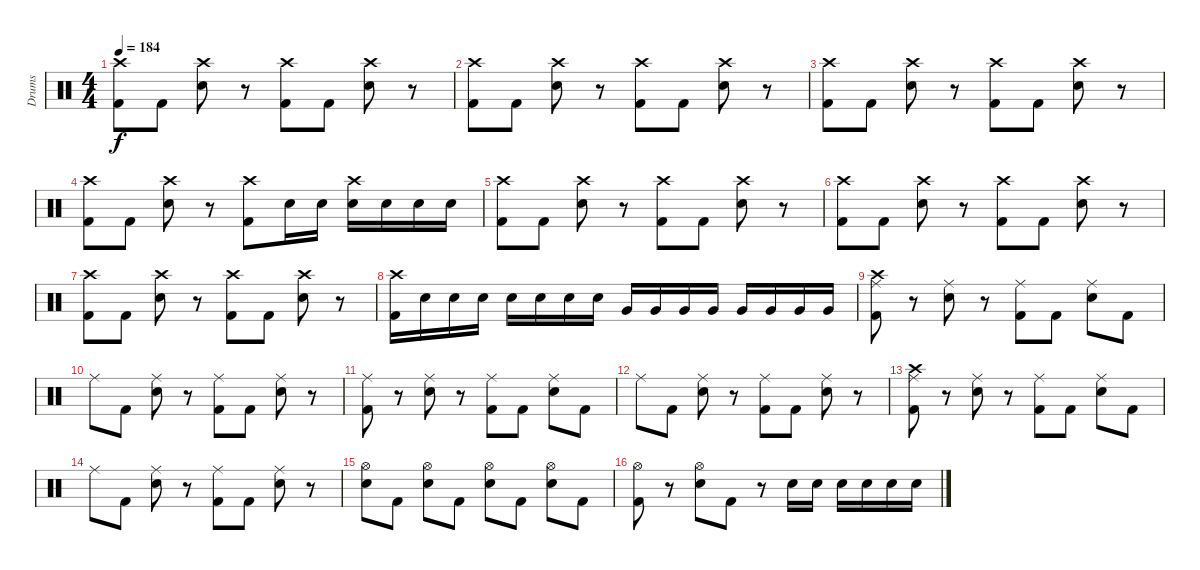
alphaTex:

\track ("Drums" "Drums") {instrument percussion}
\staff {score}
\articulation defaults
\ts (4 4)
\tempo 184
\clef neutral
\ks c
("Crash high (hit)" "Kick (hit) 2").8{dy f} "Kick (hit) 2".8 ("Crash high (hit)" "Snare (hit) 2").8 r.8 ("Crash high (hit)" "Kick (hit) 2").8 "Kick (hit) 2".8 ("Crash high (hit)" "Snare (hit) 2").8 r.8 |
("Crash high (hit)" "Kick (hit) 2").8 "Kick (hit) 2".8 ("Crash high (hit)" "Snare (hit) 2").8 r.8 ("Crash high (hit)" "Kick (hit) 2").8 "Kick (hit) 2".8 ("Crash high (hit)" "Snare (hit) 2").8 r.8 |
("Crash high (hit)" "Kick (hit) 2").8 "Kick (hit) 2".8 ("Crash high (hit)" "Snare (hit) 2").8 r.8 ("Crash high (hit)" "Kick (hit) 2").8 "Kick (hit) 2".8 ("Crash high (hit)" "Snare (hit) 2").8 r.8 |
("Crash high (hit)" "Kick (hit) 2").8 "Kick (hit) 2".8 ("Crash high (hit)" "Snare (hit) 2").8 r.8 ("Crash high (hit)" "Kick (hit) 2").8 "Snare (hit) 2".16 "Snare (hit) 2".16 ("Crash high (hit)" "Snare (hit) 2").16 "Snare (hit) 2".16 "Snare (hit) 2".16 "Snare (hit) 2".16 |
("Crash high (hit)" "Kick (hit) 2").8 "Kick (hit) 2".8 ("Crash high (hit)" "Snare (hit) 2").8 r.8 ("Crash high (hit)" "Kick (hit) 2").8 "Kick (hit) 2".8 ("Crash high (hit)" "Snare (hit) 2").8 r.8 |
("Crash high (hit)" "Kick (hit) 2").8 "Kick (hit) 2".8 ("Crash high (hit)" "Snare (hit) 2").8 r.8 ("Crash high (hit)" "Kick (hit) 2").8 "Kick (hit) 2".8 ("Crash high (hit)" "Snare (hit) 2").8 r.8 |
("Crash high (hit)" "Kick (hit) 2").8 "Kick (hit) 2".8 ("Crash high (hit)" "Snare (hit) 2").8 r.8 ("Crash high (hit)" "Kick (hit) 2").8 "Kick (hit) 2".8 ("Crash high (hit)" "Snare (hit) 2").8 r.8 |
("Crash high (hit)" "Kick (hit) 2").16 "Snare (hit) 2".16 "Snare (hit) 2".16 "Snare (hit) 2".16 "Snare (hit) 2".16 "Snare (hit) 2".16 "Snare (hit) 2".16 "Snare (hit) 2".16 "Very Low Tom (hit)".16 "Very Low Tom (hit)".16 "Very Low Tom (hit)".16 "Very Low Tom (hit)".16 "Very Low Tom (hit)".16 "Very Low Tom (hit)".16 "Very Low Tom (hit)".16 "Very Low Tom (hit)".16 |
("Crash high (hit)" "Ride (middle)" "Kick (hit) 2").8 r.8 ("Ride (middle)" "Snare (hit) 2").8 r.8 ("Ride (middle)" "Kick (hit) 2").8 "Kick (hit) 2".8 ("Ride (middle)" "Snare (hit) 2").8 "Kick (hit) 2".8 |
"Ride (middle)".8 "Kick (hit) 2".8 ("Ride (middle)" "Snare (hit) 2").8 r.8 ("Ride (middle)" "Kick (hit) 2").8 "Kick (hit) 2".8 ("Ride (middle)" "Snare (hit) 2").8 r.8 |
("Ride (middle)" "Kick (hit) 2").8 r.8 ("Ride (middle)" "Snare (hit) 2").8 r.8 ("Ride (middle)" "Kick (hit) 2").8 "Kick (hit) 2".8 ("Ride (middle)" "Snare (hit) 2").8 "Kick (hit) 2".8 |
"Ride (middle)".8 "Kick (hit) 2".8 ("Ride (middle)" "Snare (hit) 2").8 r.8 ("Ride (middle)" "Kick (hit) 2").8 "Kick (hit) 2".8 ("Ride (middle)" "Snare (hit) 2").8 r.8 |
("Crash high (hit)" "Ride (middle)" "Kick (hit) 2").8 r.8 ("Ride (middle)" "Snare (hit) 2").8 r.8 ("Ride (middle)" "Kick (hit) 2").8 "Kick (hit) 2".8 ("Ride (middle)" "Snare (hit) 2").8 "Kick (hit) 2".8 |
"Ride (middle)".8 "Kick (hit) 2".8 ("Ride (middle)" "Snare (hit) 2").8 r.8 ("Ride (middle)" "Kick (hit) 2").8 "Kick (hit) 2".8 ("Ride (middle)" "Snare (hit) 2").8 r.8 |
("Hi-Hat (open)" "Snare (hit) 2").8 "Kick (hit) 2".8 ("Hi-Hat (open)" "Snare (hit) 2").8 "Kick (hit) 2".8 ("Hi-Hat (open)" "Snare (hit) 2").8 "Kick (hit) 2".8 ("Hi-Hat (open)" "Snare (hit) 2").8 "Kick (hit) 2".8 |
("Hi-Hat (open)" "Kick (hit) 2").8 r.8 ("Hi-Hat (open)" "Snare (hit) 2").8 "Kick (hit) 2".8 r.8 "Snare (hit) 2".16 "Snare (hit) 2".16 "Snare (hit) 2".16 "Snare (hit) 2".16 "Snare (hit) 2".16 "Snare (hit) 2".16
